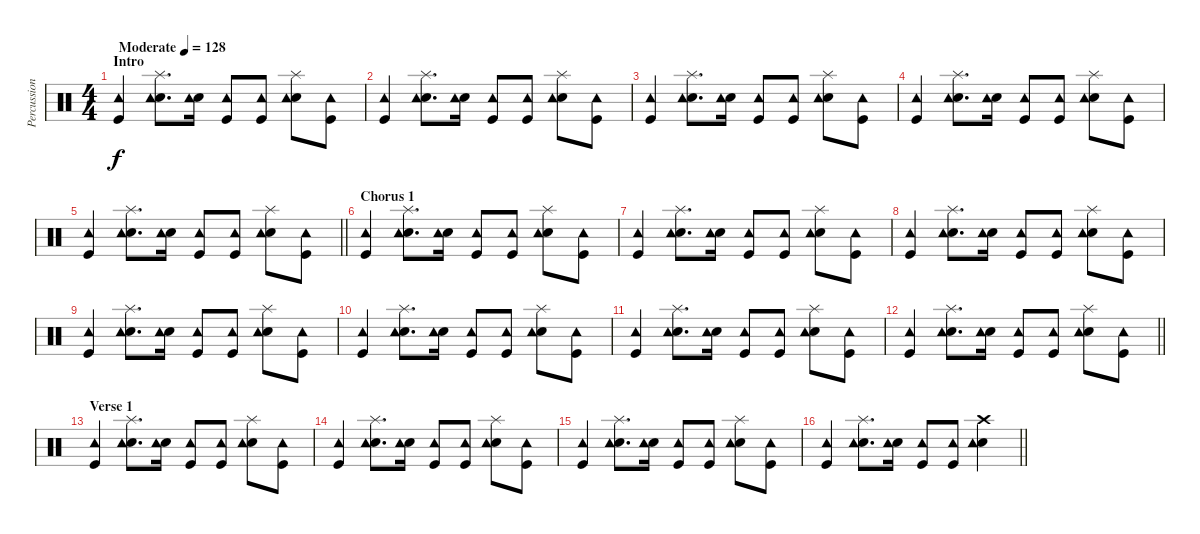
\track ("Percussions" "Percussion") {instrument percussion}
\staff {score}
\articulation defaults
\ts (4 4)
\section ("" "Intro")
\tempo (128 "Moderate")
\clef neutral
\ks c
("Kick (hit)" "Tambourine (hit)").4{dy f} ("Snare (hit) 2" "Tambourine (hit)" "Splash (hit)").8{d} ("Snare (hit) 2" "Tambourine (hit)").16 ("Kick (hit)" "Tambourine (hit)").8 ("Kick (hit)" "Tambourine (hit)").8 ("Snare (hit) 2" "Tambourine (hit)" "Splash (hit)").8 ("Kick (hit)" "Tambourine (hit)").8 |
("Kick (hit)" "Tambourine (hit)").4 ("Snare (hit) 2" "Tambourine (hit)" "Splash (hit)").8{d} ("Snare (hit) 2" "Tambourine (hit)").16 ("Kick (hit)" "Tambourine (hit)").8 ("Kick (hit)" "Tambourine (hit)").8 ("Snare (hit) 2" "Tambourine (hit)" "Splash (hit)").8 ("Kick (hit)" "Tambourine (hit)").8 |
("Kick (hit)" "Tambourine (hit)").4 ("Snare (hit) 2" "Tambourine (hit)" "Splash (hit)").8{d} ("Snare (hit) 2" "Tambourine (hit)").16 ("Kick (hit)" "Tambourine (hit)").8 ("Kick (hit)" "Tambourine (hit)").8 ("Snare (hit) 2" "Tambourine (hit)" "Splash (hit)").8 ("Kick (hit)" "Tambourine (hit)").8 |
("Kick (hit)" "Tambourine (hit)").4 ("Snare (hit) 2" "Tambourine (hit)" "Splash (hit)").8{d} ("Snare (hit) 2" "Tambourine (hit)").16 ("Kick (hit)" "Tambourine (hit)").8 ("Kick (hit)" "Tambourine (hit)").8 ("Snare (hit) 2" "Tambourine (hit)" "Splash (hit)").8 ("Kick (hit)" "Tambourine (hit)").8 |
\barLineRight lightlight
("Kick (hit)" "Tambourine (hit)").4 ("Snare (hit) 2" "Tambourine (hit)" "Splash (hit)").8{d} ("Snare (hit) 2" "Tambourine (hit)").16 ("Kick (hit)" "Tambourine (hit)").8 ("Kick (hit)" "Tambourine (hit)").8 ("Snare (hit) 2" "Tambourine (hit)" "Splash (hit)").8 ("Kick (hit)" "Tambourine (hit)").8 |
\section ("" "Chorus 1")
("Kick (hit)" "Tambourine (hit)").4 ("Snare (hit) 2" "Tambourine (hit)" "Splash (hit)").8{d} ("Snare (hit) 2" "Tambourine (hit)").16 ("Kick (hit)" "Tambourine (hit)").8 ("Kick (hit)" "Tambourine (hit)").8 ("Snare (hit) 2" "Tambourine (hit)" "Splash (hit)").8 ("Kick (hit)" "Tambourine (hit)").8 |
("Kick (hit)" "Tambourine (hit)").4 ("Snare (hit) 2" "Tambourine (hit)" "Splash (hit)").8{d} ("Snare (hit) 2" "Tambourine (hit)").16 ("Kick (hit)" "Tambourine (hit)").8 ("Kick (hit)" "Tambourine (hit)").8 ("Snare (hit) 2" "Tambourine (hit)" "Splash (hit)").8 ("Kick (hit)" "Tambourine (hit)").8 |
("Kick (hit)" "Tambourine (hit)").4 ("Snare (hit) 2" "Tambourine (hit)" "Splash (hit)").8{d} ("Snare (hit) 2" "Tambourine (hit)").16 ("Kick (hit)" "Tambourine (hit)").8 ("Kick (hit)" "Tambourine (hit)").8 ("Snare (hit) 2" "Tambourine (hit)" "Splash (hit)").8 ("Kick (hit)" "Tambourine (hit)").8 |
("Kick (hit)" "Tambourine (hit)").4 ("Snare (hit) 2" "Tambourine (hit)" "Splash (hit)").8{d} ("Snare (hit) 2" "Tambourine (hit)").16 ("Kick (hit)" "Tambourine (hit)").8 ("Kick (hit)" "Tambourine (hit)").8 ("Snare (hit) 2" "Tambourine (hit)" "Splash (hit)").8 ("Kick (hit)" "Tambourine (hit)").8 |
("Kick (hit)" "Tambourine (hit)").4 ("Snare (hit) 2" "Tambourine (hit)" "Splash (hit)").8{d} ("Snare (hit) 2" "Tambourine (hit)").16 ("Kick (hit)" "Tambourine (hit)").8 ("Kick (hit)" "Tambourine (hit)").8 ("Snare (hit) 2" "Tambourine (hit)" "Splash (hit)").8 ("Kick (hit)" "Tambourine (hit)").8 |
("Kick (hit)" "Tambourine (hit)").4 ("Snare (hit) 2" "Tambourine (hit)" "Splash (hit)").8{d} ("Snare (hit) 2" "Tambourine (hit)").16 ("Kick (hit)" "Tambourine (hit)").8 ("Kick (hit)" "Tambourine (hit)").8 ("Snare (hit) 2" "Tambourine (hit)" "Splash (hit)").8 ("Kick (hit)" "Tambourine (hit)").8 |
\barLineRight lightlight
("Kick (hit)" "Tambourine (hit)").4 ("Snare (hit) 2" "Tambourine (hit)" "Splash (hit)").8{d} ("Snare (hit) 2" "Tambourine (hit)").16 ("Kick (hit)" "Tambourine (hit)").8 ("Kick (hit)" "Tambourine (hit)").8 ("Snare (hit) 2" "Tambourine (hit)" "Splash (hit)").8 ("Kick (hit)" "Tambourine (hit)").8 |
\section ("" "Verse 1")
("Kick (hit)" "Tambourine (hit)").4 ("Snare (hit) 2" "Tambourine (hit)" "Splash (hit)").8{d} ("Snare (hit) 2" "Tambourine (hit)").16 ("Kick (hit)" "Tambourine (hit)").8 ("Kick (hit)" "Tambourine (hit)").8 ("Snare (hit) 2" "Tambourine (hit)" "Splash (hit)").8 ("Kick (hit)" "Tambourine (hit)").8 |
("Kick (hit)" "Tambourine (hit)").4 ("Snare (hit) 2" "Tambourine (hit)" "Splash (hit)").8{d} ("Snare (hit) 2" "Tambourine (hit)").16 ("Kick (hit)" "Tambourine (hit)").8 ("Kick (hit)" "Tambourine (hit)").8 ("Snare (hit) 2" "Tambourine (hit)" "Splash (hit)").8 ("Kick (hit)" "Tambourine (hit)").8 |
("Kick (hit)" "Tambourine (hit)").4 ("Snare (hit) 2" "Tambourine (hit)" "Splash (hit)").8{d} ("Snare (hit) 2" "Tambourine (hit)").16 ("Kick (hit)" "Tambourine (hit)").8 ("Kick (hit)" "Tambourine (hit)").8 ("Snare (hit) 2" "Tambourine (hit)" "Splash (hit)").8 ("Kick (hit)" "Tambourine (hit)").8 |
\barLineRight lightlight
("Kick (hit)" "Tambourine (hit)").4 ("Snare (hit) 2" "Tambourine (hit)" "Splash (hit)").8{d} ("Snare (hit) 2" "Tambourine (hit)").16 ("Kick (hit)" "Tambourine (hit)").8 ("Kick (hit)" "Tambourine (hit)").8 ("Snare (hit) 2" "Tambourine (hit)" "Crash high (hit)").4
